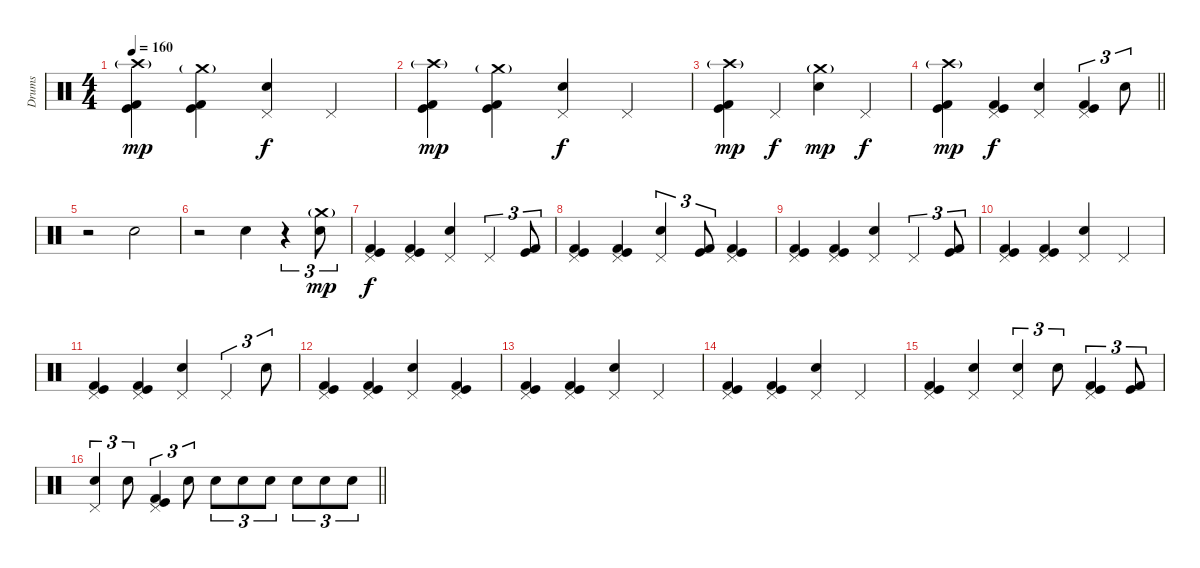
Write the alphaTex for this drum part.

\track ("Drums" "Drums") {instrument percussion}
\staff {score}
\articulation defaults
\ts (4 4)
\tempo 160
\clef neutral
\ks c
("Crash high (hit)"{g} "Kick (hit)" "Kick (hit) 2").4{dy mp} ("Crash medium (hit)"{g} "Kick (hit)" "Kick (hit) 2").4 ("Pedal Hi-Hat (hit)" "Electric Snare (hit)").4{dy f} "Pedal Hi-Hat (hit)".4 |
("Crash high (hit)"{g} "Kick (hit)" "Kick (hit) 2").4{dy mp} ("Crash medium (hit)"{g} "Kick (hit)" "Kick (hit) 2").4 ("Pedal Hi-Hat (hit)" "Electric Snare (hit)").4{dy f} "Pedal Hi-Hat (hit)".4 |
("Crash high (hit)"{g} "Kick (hit)" "Kick (hit) 2").4{dy mp} "Pedal Hi-Hat (hit)".4{dy f} ("Crash medium (hit)"{g} "Electric Snare (hit)").4{dy mp} "Pedal Hi-Hat (hit)".4{dy f} |
\barLineRight lightlight
("Crash high (hit)"{g} "Kick (hit)" "Kick (hit) 2").4{dy mp} ("Pedal Hi-Hat (hit)" "Kick (hit)" "Kick (hit) 2").4{dy f} ("Pedal Hi-Hat (hit)" "Electric Snare (hit)").4 ("Pedal Hi-Hat (hit)" "Kick (hit)" "Kick (hit) 2").4{tu (3 2)} "Electric Snare (hit)".8{tu (3 2)} |
\section ("" "")
r.2 "Hand Clap (hit)".2 |
r.2 "Hand Clap (hit)".4 r.4{tu (3 2)} ("Crash medium (hit)"{g} "Electric Snare (hit)").8{tu (3 2) dy mp} |
("Pedal Hi-Hat (hit)" "Kick (hit)" "Kick (hit) 2").4{dy f} ("Pedal Hi-Hat (hit)" "Kick (hit)" "Kick (hit) 2").4 ("Pedal Hi-Hat (hit)" "Electric Snare (hit)").4 "Pedal Hi-Hat (hit)".4{tu (3 2)} ("Kick (hit)" "Kick (hit) 2").8{tu (3 2)} |
("Pedal Hi-Hat (hit)" "Kick (hit)" "Kick (hit) 2").4 ("Pedal Hi-Hat (hit)" "Kick (hit)" "Kick (hit) 2").4 ("Pedal Hi-Hat (hit)" "Electric Snare (hit)").4{tu (3 2)} ("Kick (hit)" "Kick (hit) 2").8{tu (3 2)} ("Pedal Hi-Hat (hit)" "Kick (hit)" "Kick (hit) 2").4 |
("Pedal Hi-Hat (hit)" "Kick (hit)" "Kick (hit) 2").4 ("Pedal Hi-Hat (hit)" "Kick (hit)" "Kick (hit) 2").4 ("Pedal Hi-Hat (hit)" "Electric Snare (hit)").4 "Pedal Hi-Hat (hit)".4{tu (3 2)} ("Kick (hit)" "Kick (hit) 2").8{tu (3 2)} |
("Pedal Hi-Hat (hit)" "Kick (hit)" "Kick (hit) 2").4 ("Pedal Hi-Hat (hit)" "Kick (hit)" "Kick (hit) 2").4 ("Pedal Hi-Hat (hit)" "Electric Snare (hit)").4 "Pedal Hi-Hat (hit)".4 |
("Pedal Hi-Hat (hit)" "Kick (hit)" "Kick (hit) 2").4 ("Pedal Hi-Hat (hit)" "Kick (hit)" "Kick (hit) 2").4 ("Pedal Hi-Hat (hit)" "Electric Snare (hit)").4 "Pedal Hi-Hat (hit)".4{tu (3 2)} "Electric Snare (hit)".8{tu (3 2)} |
("Pedal Hi-Hat (hit)" "Kick (hit)" "Kick (hit) 2").4 ("Pedal Hi-Hat (hit)" "Kick (hit)" "Kick (hit) 2").4 ("Pedal Hi-Hat (hit)" "Electric Snare (hit)").4 ("Pedal Hi-Hat (hit)" "Kick (hit)" "Kick (hit) 2").4 |
("Pedal Hi-Hat (hit)" "Kick (hit)" "Kick (hit) 2").4 ("Pedal Hi-Hat (hit)" "Kick (hit)" "Kick (hit) 2").4 ("Pedal Hi-Hat (hit)" "Electric Snare (hit)").4 "Pedal Hi-Hat (hit)".4 |
("Pedal Hi-Hat (hit)" "Kick (hit)" "Kick (hit) 2").4 ("Pedal Hi-Hat (hit)" "Kick (hit)" "Kick (hit) 2").4 ("Pedal Hi-Hat (hit)" "Electric Snare (hit)").4 "Pedal Hi-Hat (hit)".4 |
("Pedal Hi-Hat (hit)" "Kick (hit)" "Kick (hit) 2").4 ("Pedal Hi-Hat (hit)" "Electric Snare (hit)").4 ("Pedal Hi-Hat (hit)" "Electric Snare (hit)").4{tu (3 2)} "Electric Snare (hit)".8{tu (3 2)} ("Pedal Hi-Hat (hit)" "Kick (hit)" "Kick (hit) 2").4{tu (3 2)} ("Kick (hit)" "Kick (hit) 2").8{tu (3 2)} |
\barLineRight lightlight
("Pedal Hi-Hat (hit)" "Electric Snare (hit)").4{tu (3 2)} "Electric Snare (hit)".8{tu (3 2)} ("Pedal Hi-Hat (hit)" "Kick (hit)" "Kick (hit) 2").4{tu (3 2)} "Electric Snare (hit)".8{tu (3 2)} "Electric Snare (hit)".8{tu (3 2)} "Electric Snare (hit)".8{tu (3 2)} "Electric Snare (hit)".8{tu (3 2)} "Electric Snare (hit)".8{tu (3 2)} "Electric Snare (hit)".8{tu (3 2)} "Electric Snare (hit)".8{tu (3 2)}
